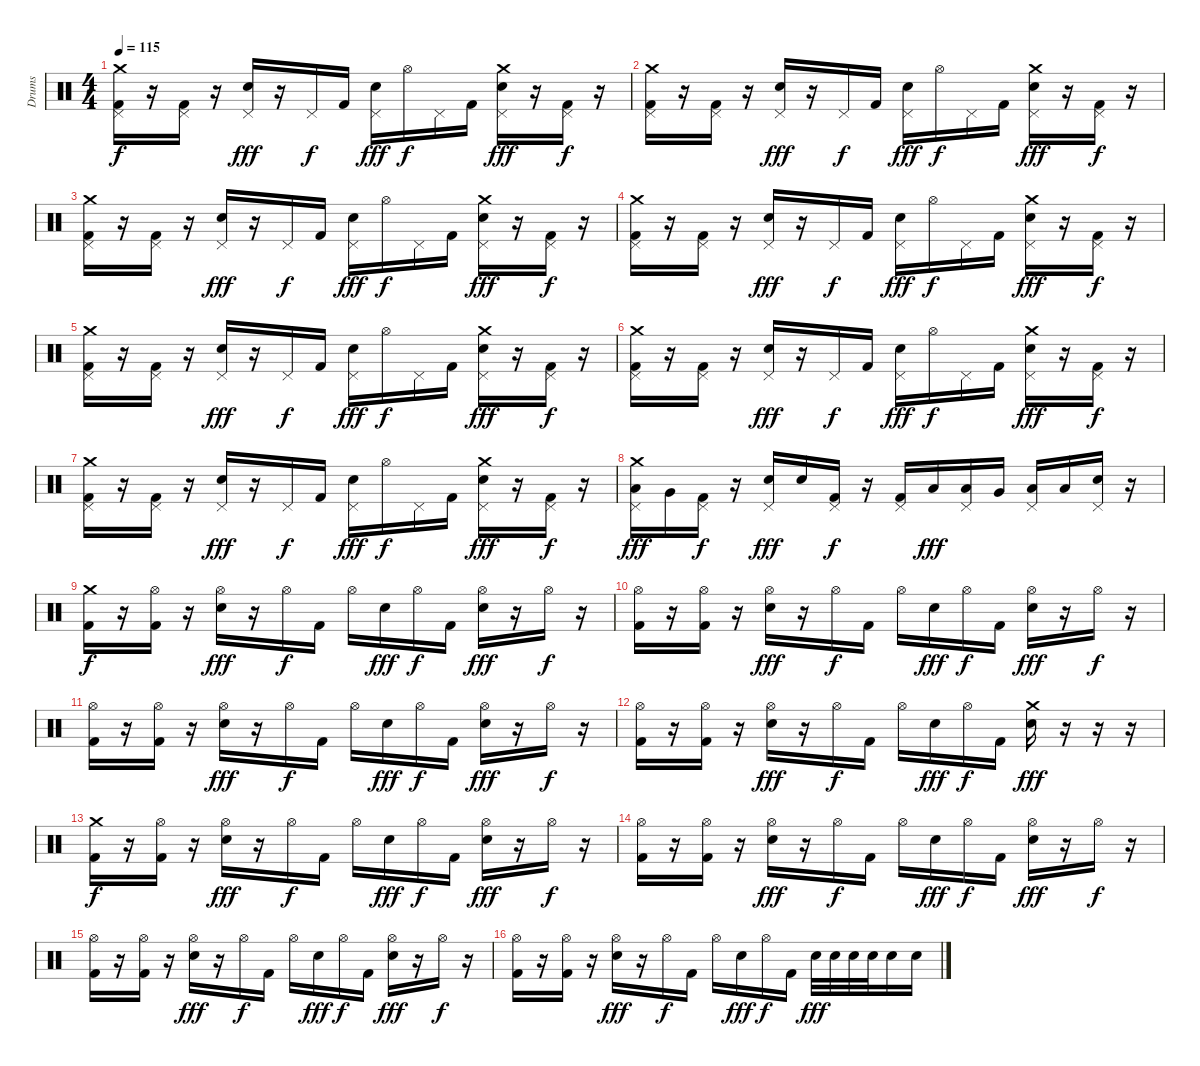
\track ("Drums" "Drums") {instrument percussion}
\staff {score}
\articulation defaults
\ts (4 4)
\tempo 115
\clef neutral
\ks c
("Crash medium (hit)" "Pedal Hi-Hat (hit)" "Kick (hit) 2").16{dy f} r.16 ("Pedal Hi-Hat (hit)" "Kick (hit) 2").16 r.16 ("Pedal Hi-Hat (hit)" "Snare (hit) 2").16{dy fff} r.16 "Pedal Hi-Hat (hit)".16{dy f} "Kick (hit) 2".16 ("Pedal Hi-Hat (hit)" "Snare (hit) 2").16{dy fff} "Hi-Hat (open)".16{dy f} "Pedal Hi-Hat (hit)".16 "Kick (hit) 2".16 ("Crash medium (hit)" "Pedal Hi-Hat (hit)" "Snare (hit) 2").16{dy fff} r.16 ("Pedal Hi-Hat (hit)" "Kick (hit) 2").16{dy f} r.16 |
("Crash medium (hit)" "Pedal Hi-Hat (hit)" "Kick (hit) 2").16 r.16 ("Pedal Hi-Hat (hit)" "Kick (hit) 2").16 r.16 ("Pedal Hi-Hat (hit)" "Snare (hit) 2").16{dy fff} r.16 "Pedal Hi-Hat (hit)".16{dy f} "Kick (hit) 2".16 ("Pedal Hi-Hat (hit)" "Snare (hit) 2").16{dy fff} "Hi-Hat (open)".16{dy f} "Pedal Hi-Hat (hit)".16 "Kick (hit) 2".16 ("Crash medium (hit)" "Pedal Hi-Hat (hit)" "Snare (hit) 2").16{dy fff} r.16 ("Pedal Hi-Hat (hit)" "Kick (hit) 2").16{dy f} r.16 |
("Crash medium (hit)" "Pedal Hi-Hat (hit)" "Kick (hit) 2").16 r.16 ("Pedal Hi-Hat (hit)" "Kick (hit) 2").16 r.16 ("Pedal Hi-Hat (hit)" "Snare (hit) 2").16{dy fff} r.16 "Pedal Hi-Hat (hit)".16{dy f} "Kick (hit) 2".16 ("Pedal Hi-Hat (hit)" "Snare (hit) 2").16{dy fff} "Hi-Hat (open)".16{dy f} "Pedal Hi-Hat (hit)".16 "Kick (hit) 2".16 ("Crash medium (hit)" "Pedal Hi-Hat (hit)" "Snare (hit) 2").16{dy fff} r.16 ("Pedal Hi-Hat (hit)" "Kick (hit) 2").16{dy f} r.16 |
("Crash medium (hit)" "Pedal Hi-Hat (hit)" "Kick (hit) 2").16 r.16 ("Pedal Hi-Hat (hit)" "Kick (hit) 2").16 r.16 ("Pedal Hi-Hat (hit)" "Snare (hit) 2").16{dy fff} r.16 "Pedal Hi-Hat (hit)".16{dy f} "Kick (hit) 2".16 ("Pedal Hi-Hat (hit)" "Snare (hit) 2").16{dy fff} "Hi-Hat (open)".16{dy f} "Pedal Hi-Hat (hit)".16 "Kick (hit) 2".16 ("Crash medium (hit)" "Pedal Hi-Hat (hit)" "Snare (hit) 2").16{dy fff} r.16 ("Pedal Hi-Hat (hit)" "Kick (hit) 2").16{dy f} r.16 |
("Crash medium (hit)" "Pedal Hi-Hat (hit)" "Kick (hit) 2").16 r.16 ("Pedal Hi-Hat (hit)" "Kick (hit) 2").16 r.16 ("Pedal Hi-Hat (hit)" "Snare (hit) 2").16{dy fff} r.16 "Pedal Hi-Hat (hit)".16{dy f} "Kick (hit) 2".16 ("Pedal Hi-Hat (hit)" "Snare (hit) 2").16{dy fff} "Hi-Hat (open)".16{dy f} "Pedal Hi-Hat (hit)".16 "Kick (hit) 2".16 ("Crash medium (hit)" "Pedal Hi-Hat (hit)" "Snare (hit) 2").16{dy fff} r.16 ("Pedal Hi-Hat (hit)" "Kick (hit) 2").16{dy f} r.16 |
("Crash medium (hit)" "Pedal Hi-Hat (hit)" "Kick (hit) 2").16 r.16 ("Pedal Hi-Hat (hit)" "Kick (hit) 2").16 r.16 ("Pedal Hi-Hat (hit)" "Snare (hit) 2").16{dy fff} r.16 "Pedal Hi-Hat (hit)".16{dy f} "Kick (hit) 2".16 ("Pedal Hi-Hat (hit)" "Snare (hit) 2").16{dy fff} "Hi-Hat (open)".16{dy f} "Pedal Hi-Hat (hit)".16 "Kick (hit) 2".16 ("Crash medium (hit)" "Pedal Hi-Hat (hit)" "Snare (hit) 2").16{dy fff} r.16 ("Pedal Hi-Hat (hit)" "Kick (hit) 2").16{dy f} r.16 |
("Crash medium (hit)" "Pedal Hi-Hat (hit)" "Kick (hit) 2").16 r.16 ("Pedal Hi-Hat (hit)" "Kick (hit) 2").16 r.16 ("Pedal Hi-Hat (hit)" "Snare (hit) 2").16{dy fff} r.16 "Pedal Hi-Hat (hit)".16{dy f} "Kick (hit) 2".16 ("Pedal Hi-Hat (hit)" "Snare (hit) 2").16{dy fff} "Hi-Hat (open)".16{dy f} "Pedal Hi-Hat (hit)".16 "Kick (hit) 2".16 ("Crash medium (hit)" "Pedal Hi-Hat (hit)" "Snare (hit) 2").16{dy fff} r.16 ("Pedal Hi-Hat (hit)" "Kick (hit) 2").16{dy f} r.16 |
("Crash medium (hit)" "Pedal Hi-Hat (hit)" "Low Tom (hit)").16{dy fff} "Very Low Tom (hit)".16 ("Pedal Hi-Hat (hit)" "Kick (hit) 2").16{dy f} r.16 ("Pedal Hi-Hat (hit)" "Snare (hit) 2").16{dy fff} "Snare (hit) 2".16 ("Pedal Hi-Hat (hit)" "Kick (hit) 2").16{dy f} r.16 ("Pedal Hi-Hat (hit)" "Kick (hit) 2").16 "Low Tom (hit)".16{dy fff} ("Pedal Hi-Hat (hit)" "Low Tom (hit)").16 "Very Low Tom (hit)".16 ("Pedal Hi-Hat (hit)" "Low Tom (hit)").16 "Low Tom (hit)".16 ("Pedal Hi-Hat (hit)" "Snare (hit) 2").16 r.16 |
("Crash medium (hit)" "Kick (hit) 2").16{dy f} r.16 ("Hi-Hat (open)" "Kick (hit) 2").16 r.16 ("Hi-Hat (open)" "Snare (hit) 2").16{dy fff} r.16 "Hi-Hat (open)".16{dy f} "Kick (hit) 2".16 "Hi-Hat (open)".16 "Snare (hit) 2".16{dy fff} "Hi-Hat (open)".16{dy f} "Kick (hit) 2".16 ("Hi-Hat (open)" "Snare (hit) 2").16{dy fff} r.16 "Hi-Hat (open)".16{dy f} r.16 |
("Hi-Hat (open)" "Kick (hit) 2").16 r.16 ("Hi-Hat (open)" "Kick (hit) 2").16 r.16 ("Hi-Hat (open)" "Snare (hit) 2").16{dy fff} r.16 "Hi-Hat (open)".16{dy f} "Kick (hit) 2".16 "Hi-Hat (open)".16 "Snare (hit) 2".16{dy fff} "Hi-Hat (open)".16{dy f} "Kick (hit) 2".16 ("Hi-Hat (open)" "Snare (hit) 2").16{dy fff} r.16 "Hi-Hat (open)".16{dy f} r.16 |
("Hi-Hat (open)" "Kick (hit) 2").16 r.16 ("Hi-Hat (open)" "Kick (hit) 2").16 r.16 ("Hi-Hat (open)" "Snare (hit) 2").16{dy fff} r.16 "Hi-Hat (open)".16{dy f} "Kick (hit) 2".16 "Hi-Hat (open)".16 "Snare (hit) 2".16{dy fff} "Hi-Hat (open)".16{dy f} "Kick (hit) 2".16 ("Hi-Hat (open)" "Snare (hit) 2").16{dy fff} r.16 "Hi-Hat (open)".16{dy f} r.16 |
("Hi-Hat (open)" "Kick (hit) 2").16 r.16 ("Hi-Hat (open)" "Kick (hit) 2").16 r.16 ("Hi-Hat (open)" "Snare (hit) 2").16{dy fff} r.16 "Hi-Hat (open)".16{dy f} "Kick (hit) 2".16 "Hi-Hat (open)".16 "Snare (hit) 2".16{dy fff} "Hi-Hat (open)".16{dy f} "Kick (hit) 2".16 ("Crash medium (hit)" "Snare (hit) 2").16{dy fff} r.16 r.16 r.16 |
("Crash medium (hit)" "Kick (hit) 2").16{dy f} r.16 ("Hi-Hat (open)" "Kick (hit) 2").16 r.16 ("Hi-Hat (open)" "Snare (hit) 2").16{dy fff} r.16 "Hi-Hat (open)".16{dy f} "Kick (hit) 2".16 "Hi-Hat (open)".16 "Snare (hit) 2".16{dy fff} "Hi-Hat (open)".16{dy f} "Kick (hit) 2".16 ("Hi-Hat (open)" "Snare (hit) 2").16{dy fff} r.16 "Hi-Hat (open)".16{dy f} r.16 |
("Hi-Hat (open)" "Kick (hit) 2").16 r.16 ("Hi-Hat (open)" "Kick (hit) 2").16 r.16 ("Hi-Hat (open)" "Snare (hit) 2").16{dy fff} r.16 "Hi-Hat (open)".16{dy f} "Kick (hit) 2".16 "Hi-Hat (open)".16 "Snare (hit) 2".16{dy fff} "Hi-Hat (open)".16{dy f} "Kick (hit) 2".16 ("Hi-Hat (open)" "Snare (hit) 2").16{dy fff} r.16 "Hi-Hat (open)".16{dy f} r.16 |
("Hi-Hat (open)" "Kick (hit) 2").16 r.16 ("Hi-Hat (open)" "Kick (hit) 2").16 r.16 ("Hi-Hat (open)" "Snare (hit) 2").16{dy fff} r.16 "Hi-Hat (open)".16{dy f} "Kick (hit) 2".16 "Hi-Hat (open)".16 "Snare (hit) 2".16{dy fff} "Hi-Hat (open)".16{dy f} "Kick (hit) 2".16 ("Hi-Hat (open)" "Snare (hit) 2").16{dy fff} r.16 "Hi-Hat (open)".16{dy f} r.16 |
("Hi-Hat (open)" "Kick (hit) 2").16 r.16 ("Hi-Hat (open)" "Kick (hit) 2").16 r.16 ("Hi-Hat (open)" "Snare (hit) 2").16{dy fff} r.16 "Hi-Hat (open)".16{dy f} "Kick (hit) 2".16 "Hi-Hat (open)".16 "Snare (hit) 2".16{dy fff} "Hi-Hat (open)".16{dy f} "Kick (hit) 2".16 "Snare (hit) 2".32{dy fff} "Snare (hit) 2".32 "Snare (hit) 2".32 "Snare (hit) 2".32 "Snare (hit) 2".16 "Snare (hit) 2".16
